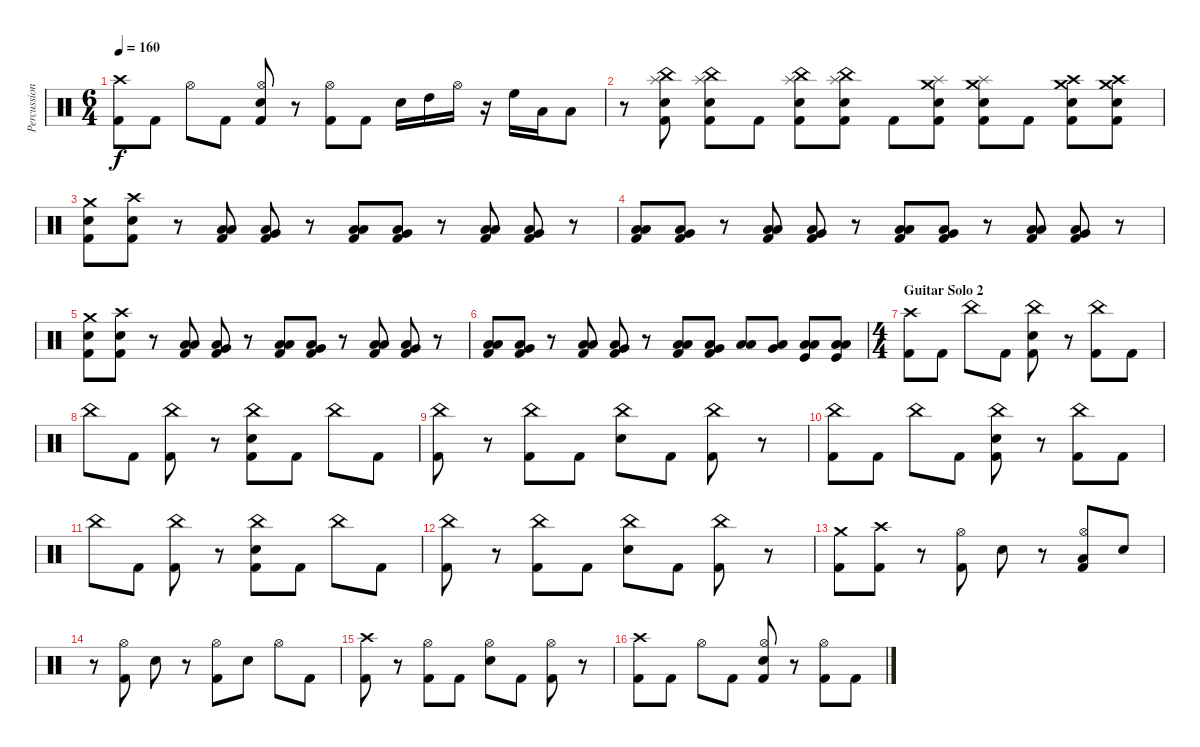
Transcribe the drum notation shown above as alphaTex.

\track ("Percussion" "Percussion") {instrument percussion}
\staff {score}
\articulation defaults
\ts (6 4)
\tempo 160
\clef neutral
\ks c
("Crash high (hit)" "Kick (hit) 2").8{dy f} "Kick (hit) 2".8 "Hi-Hat (open)".8 "Kick (hit) 2".8 ("Hi-Hat (open)" "Electric Snare (hit)" "Kick (hit) 2").8 r.8 ("Hi-Hat (open)" "Kick (hit) 2").8 "Kick (hit) 2".8 "Electric Snare (hit)".16 "High Tom (hit)".16 "Hi-Hat (open)".16 r.16 "High Floor Tom (hit)".16 "Low Tom (hit)".16 "Low Floor Tom (hit)".8 |
r.8 ("China (hit)" "Splash (hit)" "Electric Snare (hit)" "Kick (hit) 2").8 ("China (hit)" "Splash (hit)" "Electric Snare (hit)" "Kick (hit) 2").8 "Kick (hit) 2".8 ("China (hit)" "Splash (hit)" "Electric Snare (hit)" "Kick (hit) 2").8 ("China (hit)" "Splash (hit)" "Electric Snare (hit)" "Kick (hit) 2").8 "Kick (hit) 2".8 ("Crash medium (hit)" "Splash (hit)" "Electric Snare (hit)" "Kick (hit) 2").8 ("Crash medium (hit)" "Splash (hit)" "Electric Snare (hit)" "Kick (hit) 2").8 "Kick (hit) 2".8 ("Crash medium (hit)" "Crash high (hit)" "Electric Snare (hit)" "Kick (hit) 2").8 ("Crash medium (hit)" "Crash high (hit)" "Electric Snare (hit)" "Kick (hit) 2").8 |
("Crash medium (hit)" "Electric Snare (hit)" "Kick (hit) 2").8 ("Crash high (hit)" "Electric Snare (hit)" "Kick (hit) 2").8 r.8 ("Low Tom (hit)" "Low Floor Tom (hit)" "Kick (hit) 2").8 ("Very Low Tom (hit)" "Low Floor Tom (hit)" "Kick (hit) 2").8 r.8 ("Low Tom (hit)" "Low Floor Tom (hit)" "Kick (hit) 2").8 ("Very Low Tom (hit)" "Low Floor Tom (hit)" "Kick (hit) 2").8 r.8 ("Low Tom (hit)" "Low Floor Tom (hit)" "Kick (hit) 2").8 ("Very Low Tom (hit)" "Low Floor Tom (hit)" "Kick (hit) 2").8 r.8 |
("Low Tom (hit)" "Low Floor Tom (hit)" "Kick (hit) 2").8 ("Very Low Tom (hit)" "Low Floor Tom (hit)" "Kick (hit) 2").8 r.8 ("Low Tom (hit)" "Low Floor Tom (hit)" "Kick (hit) 2").8 ("Very Low Tom (hit)" "Low Floor Tom (hit)" "Kick (hit) 2").8 r.8 ("Low Tom (hit)" "Low Floor Tom (hit)" "Kick (hit) 2").8 ("Very Low Tom (hit)" "Low Floor Tom (hit)" "Kick (hit) 2").8 r.8 ("Low Tom (hit)" "Low Floor Tom (hit)" "Kick (hit) 2").8 ("Very Low Tom (hit)" "Low Floor Tom (hit)" "Kick (hit) 2").8 r.8 |
("Crash medium (hit)" "Electric Snare (hit)" "Kick (hit) 2").8 ("Crash high (hit)" "Electric Snare (hit)" "Kick (hit) 2").8 r.8 ("Low Tom (hit)" "Low Floor Tom (hit)" "Kick (hit) 2").8 ("Very Low Tom (hit)" "Low Floor Tom (hit)" "Kick (hit) 2").8 r.8 ("Low Tom (hit)" "Low Floor Tom (hit)" "Kick (hit) 2").8 ("Very Low Tom (hit)" "Low Floor Tom (hit)" "Kick (hit) 2").8 r.8 ("Low Tom (hit)" "Low Floor Tom (hit)" "Kick (hit) 2").8 ("Very Low Tom (hit)" "Low Floor Tom (hit)" "Kick (hit) 2").8 r.8 |
("Low Tom (hit)" "Low Floor Tom (hit)" "Kick (hit) 2").8 ("Very Low Tom (hit)" "Low Floor Tom (hit)" "Kick (hit) 2").8 r.8 ("Low Tom (hit)" "Low Floor Tom (hit)" "Kick (hit) 2").8 ("Very Low Tom (hit)" "Low Floor Tom (hit)" "Kick (hit) 2").8 r.8 ("Low Tom (hit)" "Low Floor Tom (hit)" "Kick (hit) 2").8 ("Very Low Tom (hit)" "Low Floor Tom (hit)" "Kick (hit) 2").8 ("Low Tom (hit)" "Low Floor Tom (hit)").8 ("Very Low Tom (hit)" "Low Floor Tom (hit)").8 ("Low Floor Tom (hit)" "Low Floor Tom (hit)" "Kick (hit)").8 ("Low Floor Tom (hit)" "Low Floor Tom (hit)" "Kick (hit)").8 |
\ts (4 4)
\section ("" "Guitar Solo 2")
("Crash high (hit)" "Kick (hit) 2").8 "Kick (hit) 2".8 "China (hit)".8 "Kick (hit) 2".8 ("China (hit)" "Electric Snare (hit)" "Kick (hit) 2").8 r.8 ("China (hit)" "Kick (hit) 2").8 "Kick (hit) 2".8 |
"China (hit)".8 "Kick (hit) 2".8 ("China (hit)" "Kick (hit) 2").8 r.8 ("China (hit)" "Electric Snare (hit)" "Kick (hit) 2").8 "Kick (hit) 2".8 "China (hit)".8 "Kick (hit) 2".8 |
("China (hit)" "Kick (hit) 2").8 r.8 ("China (hit)" "Kick (hit) 2").8 "Kick (hit) 2".8 ("China (hit)" "Electric Snare (hit)").8 "Kick (hit) 2".8 ("China (hit)" "Kick (hit) 2").8 r.8 |
("China (hit)" "Kick (hit) 2").8 "Kick (hit) 2".8 "China (hit)".8 "Kick (hit) 2".8 ("China (hit)" "Electric Snare (hit)" "Kick (hit) 2").8 r.8 ("China (hit)" "Kick (hit) 2").8 "Kick (hit) 2".8 |
"China (hit)".8 "Kick (hit) 2".8 ("China (hit)" "Kick (hit) 2").8 r.8 ("China (hit)" "Electric Snare (hit)" "Kick (hit) 2").8 "Kick (hit) 2".8 "China (hit)".8 "Kick (hit) 2".8 |
("China (hit)" "Kick (hit) 2").8 r.8 ("China (hit)" "Kick (hit) 2").8 "Kick (hit) 2".8 ("China (hit)" "Electric Snare (hit)").8 "Kick (hit) 2".8 ("China (hit)" "Kick (hit) 2").8 r.8 |
("Crash medium (hit)" "Kick (hit) 2").8 ("Crash high (hit)" "Kick (hit) 2").8 r.8 ("Hi-Hat (open)" "Kick (hit) 2").8 "Electric Snare (hit)".8 r.8 ("Hi-Hat (open)" "Low Floor Tom (hit)" "Kick (hit) 2").8 "Electric Snare (hit)".8 |
r.8 ("Hi-Hat (open)" "Kick (hit) 2").8 "Electric Snare (hit)".8 r.8 ("Hi-Hat (open)" "Kick (hit) 2").8 "Electric Snare (hit)".8 "Hi-Hat (open)".8 "Kick (hit) 2".8 |
("Crash high (hit)" "Kick (hit) 2").8 r.8 ("Hi-Hat (open)" "Kick (hit) 2").8 "Kick (hit) 2".8 ("Hi-Hat (open)" "Electric Snare (hit)").8 "Kick (hit) 2".8 ("Hi-Hat (open)" "Kick (hit) 2").8 r.8 |
("Crash high (hit)" "Kick (hit) 2").8 "Kick (hit) 2".8 "Hi-Hat (open)".8 "Kick (hit) 2".8 ("Hi-Hat (open)" "Electric Snare (hit)" "Kick (hit) 2").8 r.8 ("Hi-Hat (open)" "Kick (hit) 2").8 "Kick (hit) 2".8
